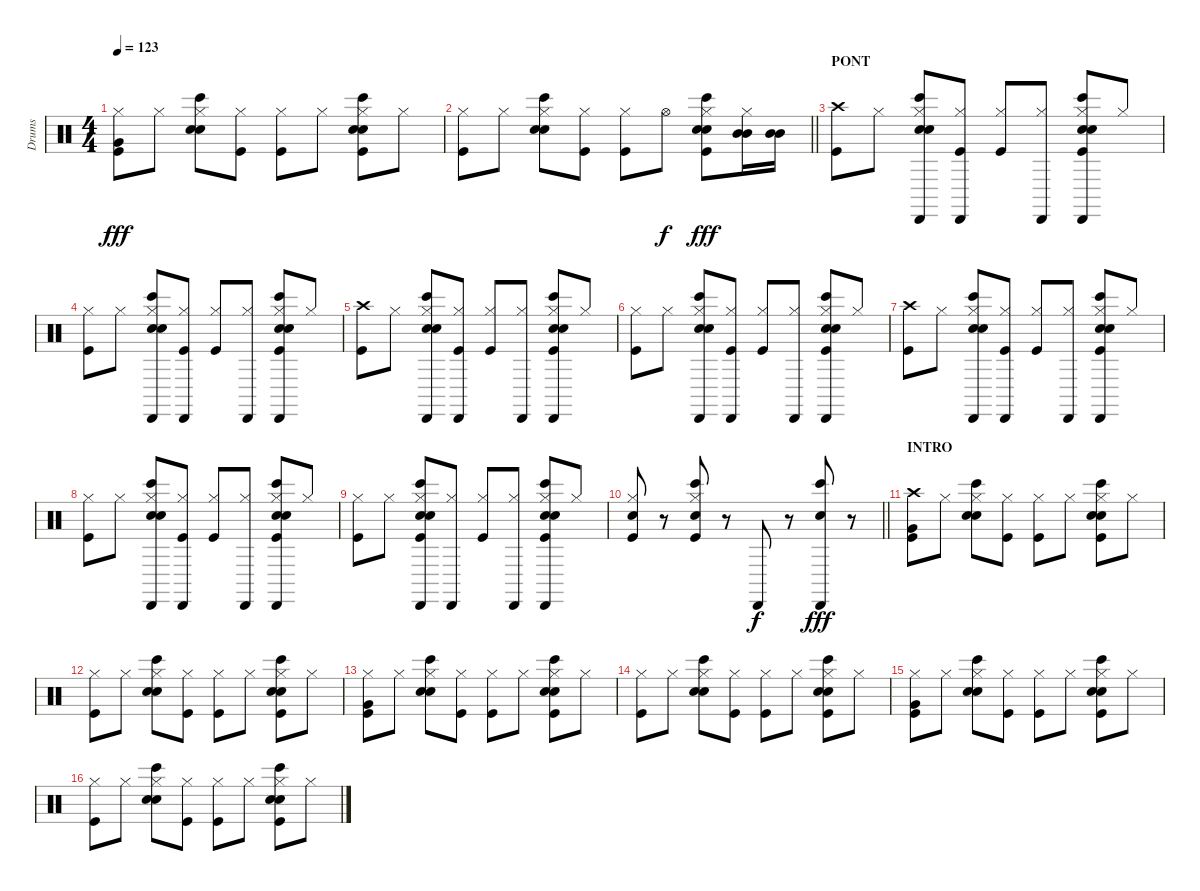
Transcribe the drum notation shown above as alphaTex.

\track ("Drums" "Drums") {instrument percussion}
\staff {score}
\articulation defaults
\ts (4 4)
\tempo 123
\clef neutral
\ks c
("Kick (hit)" "Hi-Hat (closed)" "Very Low Tom (hit)").8{dy fff} "Hi-Hat (closed)".8 ("Hi-Hat (closed)" "Bongo High (hit)" "Hand Clap (hit)" "Electric Snare (hit)").8 ("Kick (hit)" "Hi-Hat (closed)").8 ("Hi-Hat (closed)" "Kick (hit)").8 "Hi-Hat (closed)".8 ("Hi-Hat (closed)" "Kick (hit)" "Electric Snare (hit)" "Hand Clap (hit)" "Bongo High (hit)").8 "Hi-Hat (closed)".8 |
\barLineRight lightlight
("Hi-Hat (closed)" "Kick (hit)").8 "Hi-Hat (closed)".8 ("Hi-Hat (closed)" "Electric Snare (hit)" "Bongo High (hit)" "Hand Clap (hit)").8 ("Hi-Hat (closed)" "Kick (hit)").8 ("Hi-Hat (closed)" "Kick (hit)").8 "Hi-Hat (open)".8{dy f} ("Hi-Hat (closed)" "Bongo High (hit)" "Electric Snare (hit)" "Kick (hit)" "Hand Clap (hit)").8{dy fff} ("Hi-Hat (closed)" "Mid Tom (hit)" "Mid Tom (hit)").16 ("Mid Tom (hit)" "Mid Tom (hit)").16 |
\section ("" "PONT")
("Kick (hit)" "Crash high (hit)").8 "Hi-Hat (closed)".8 ("Hi-Hat (closed)" "Hand Clap (hit)" "Electric Snare (hit)" "Bongo High (hit)" "Cabasa (hit)").8 ("Kick (hit)" "Hi-Hat (closed)" "Cabasa (hit)").8 ("Hi-Hat (closed)" "Kick (hit)").8 ("Hi-Hat (closed)" "Cabasa (hit)").8 ("Hi-Hat (closed)" "Bongo High (hit)" "Kick (hit)" "Electric Snare (hit)" "Hand Clap (hit)" "Cabasa (hit)").8 "Hi-Hat (closed)".8 |
("Kick (hit)" "Hi-Hat (closed)").8 "Hi-Hat (closed)".8 ("Hi-Hat (closed)" "Cabasa (hit)" "Hand Clap (hit)" "Electric Snare (hit)" "Bongo High (hit)").8 ("Cabasa (hit)" "Kick (hit)" "Hi-Hat (closed)").8 ("Hi-Hat (closed)" "Kick (hit)").8 ("Hi-Hat (closed)" "Cabasa (hit)").8 ("Hi-Hat (closed)" "Kick (hit)" "Hand Clap (hit)" "Cabasa (hit)" "Bongo High (hit)" "Electric Snare (hit)").8 "Hi-Hat (closed)".8 |
("Kick (hit)" "Crash high (hit)").8 "Hi-Hat (closed)".8 ("Hi-Hat (closed)" "Hand Clap (hit)" "Electric Snare (hit)" "Bongo High (hit)" "Cabasa (hit)").8 ("Kick (hit)" "Hi-Hat (closed)" "Cabasa (hit)").8 ("Hi-Hat (closed)" "Kick (hit)").8 ("Hi-Hat (closed)" "Cabasa (hit)").8 ("Hi-Hat (closed)" "Bongo High (hit)" "Kick (hit)" "Electric Snare (hit)" "Hand Clap (hit)" "Cabasa (hit)").8 "Hi-Hat (closed)".8 |
("Kick (hit)" "Hi-Hat (closed)").8 "Hi-Hat (closed)".8 ("Hi-Hat (closed)" "Cabasa (hit)" "Hand Clap (hit)" "Electric Snare (hit)" "Bongo High (hit)").8 ("Cabasa (hit)" "Kick (hit)" "Hi-Hat (closed)").8 ("Hi-Hat (closed)" "Kick (hit)").8 ("Hi-Hat (closed)" "Cabasa (hit)").8 ("Hi-Hat (closed)" "Kick (hit)" "Hand Clap (hit)" "Cabasa (hit)" "Bongo High (hit)" "Electric Snare (hit)").8 "Hi-Hat (closed)".8 |
("Kick (hit)" "Crash high (hit)").8 "Hi-Hat (closed)".8 ("Hi-Hat (closed)" "Hand Clap (hit)" "Electric Snare (hit)" "Bongo High (hit)" "Cabasa (hit)").8 ("Kick (hit)" "Hi-Hat (closed)" "Cabasa (hit)").8 ("Hi-Hat (closed)" "Kick (hit)").8 ("Hi-Hat (closed)" "Cabasa (hit)").8 ("Hi-Hat (closed)" "Bongo High (hit)" "Kick (hit)" "Electric Snare (hit)" "Hand Clap (hit)" "Cabasa (hit)").8 "Hi-Hat (closed)".8 |
("Kick (hit)" "Hi-Hat (closed)").8 "Hi-Hat (closed)".8 ("Hi-Hat (closed)" "Cabasa (hit)" "Hand Clap (hit)" "Electric Snare (hit)" "Bongo High (hit)").8 ("Cabasa (hit)" "Kick (hit)" "Hi-Hat (closed)").8 ("Hi-Hat (closed)" "Kick (hit)").8 ("Hi-Hat (closed)" "Cabasa (hit)").8 ("Hi-Hat (closed)" "Kick (hit)" "Hand Clap (hit)" "Cabasa (hit)" "Bongo High (hit)" "Electric Snare (hit)").8 "Hi-Hat (closed)".8 |
("Kick (hit)" "Hi-Hat (closed)").8 "Hi-Hat (closed)".8 ("Hi-Hat (closed)" "Hand Clap (hit)" "Cabasa (hit)" "Bongo High (hit)" "Electric Snare (hit)" "Kick (hit)").8 ("Cabasa (hit)" "Hi-Hat (closed)").8 ("Hi-Hat (closed)" "Kick (hit)").8 ("Hi-Hat (closed)" "Cabasa (hit)").8 ("Hi-Hat (closed)" "Electric Snare (hit)" "Cabasa (hit)" "Bongo High (hit)" "Hand Clap (hit)" "Kick (hit)").8 "Hi-Hat (closed)".8 |
\barLineRight lightlight
("Electric Snare (hit)" "Hi-Hat (closed)" "Kick (hit)").8 r.8 ("Electric Snare (hit)" "Kick (hit)" "Bongo High (hit)" "Hi-Hat (closed)").8 r.8 "Cabasa (hit)".8{dy f} r.8 ("Cabasa (hit)" "Bongo High (hit)" "Electric Snare (hit)").8{dy fff} r.8 |
\section ("" "INTRO")
("Kick (hit)" "Crash high (hit)" "Very Low Tom (hit)").8 "Hi-Hat (closed)".8 ("Hi-Hat (closed)" "Bongo High (hit)" "Hand Clap (hit)" "Electric Snare (hit)").8 ("Kick (hit)" "Hi-Hat (closed)").8 ("Hi-Hat (closed)" "Kick (hit)").8 "Hi-Hat (closed)".8 ("Hi-Hat (closed)" "Kick (hit)" "Electric Snare (hit)" "Hand Clap (hit)" "Bongo High (hit)").8 "Hi-Hat (closed)".8 |
("Hi-Hat (closed)" "Kick (hit)").8 "Hi-Hat (closed)".8 ("Hi-Hat (closed)" "Electric Snare (hit)" "Bongo High (hit)" "Hand Clap (hit)").8 ("Hi-Hat (closed)" "Kick (hit)").8 ("Hi-Hat (closed)" "Kick (hit)").8 "Hi-Hat (closed)".8 ("Hi-Hat (closed)" "Kick (hit)" "Electric Snare (hit)" "Bongo High (hit)" "Hand Clap (hit)").8 "Hi-Hat (closed)".8 |
("Kick (hit)" "Hi-Hat (closed)" "Very Low Tom (hit)").8 "Hi-Hat (closed)".8 ("Hi-Hat (closed)" "Bongo High (hit)" "Hand Clap (hit)" "Electric Snare (hit)").8 ("Kick (hit)" "Hi-Hat (closed)").8 ("Hi-Hat (closed)" "Kick (hit)").8 "Hi-Hat (closed)".8 ("Hi-Hat (closed)" "Kick (hit)" "Electric Snare (hit)" "Hand Clap (hit)" "Bongo High (hit)").8 "Hi-Hat (closed)".8 |
("Hi-Hat (closed)" "Kick (hit)").8 "Hi-Hat (closed)".8 ("Hi-Hat (closed)" "Electric Snare (hit)" "Bongo High (hit)" "Hand Clap (hit)").8 ("Hi-Hat (closed)" "Kick (hit)").8 ("Hi-Hat (closed)" "Kick (hit)").8 "Hi-Hat (closed)".8 ("Hi-Hat (closed)" "Kick (hit)" "Electric Snare (hit)" "Bongo High (hit)" "Hand Clap (hit)").8 "Hi-Hat (closed)".8 |
("Kick (hit)" "Hi-Hat (closed)" "Very Low Tom (hit)").8 "Hi-Hat (closed)".8 ("Hi-Hat (closed)" "Bongo High (hit)" "Hand Clap (hit)" "Electric Snare (hit)").8 ("Kick (hit)" "Hi-Hat (closed)").8 ("Hi-Hat (closed)" "Kick (hit)").8 "Hi-Hat (closed)".8 ("Hi-Hat (closed)" "Kick (hit)" "Electric Snare (hit)" "Hand Clap (hit)" "Bongo High (hit)").8 "Hi-Hat (closed)".8 |
("Hi-Hat (closed)" "Kick (hit)").8 "Hi-Hat (closed)".8 ("Hi-Hat (closed)" "Electric Snare (hit)" "Bongo High (hit)" "Hand Clap (hit)").8 ("Hi-Hat (closed)" "Kick (hit)").8 ("Hi-Hat (closed)" "Kick (hit)").8 "Hi-Hat (closed)".8 ("Hi-Hat (closed)" "Kick (hit)" "Electric Snare (hit)" "Bongo High (hit)" "Hand Clap (hit)").8 "Hi-Hat (closed)".8
